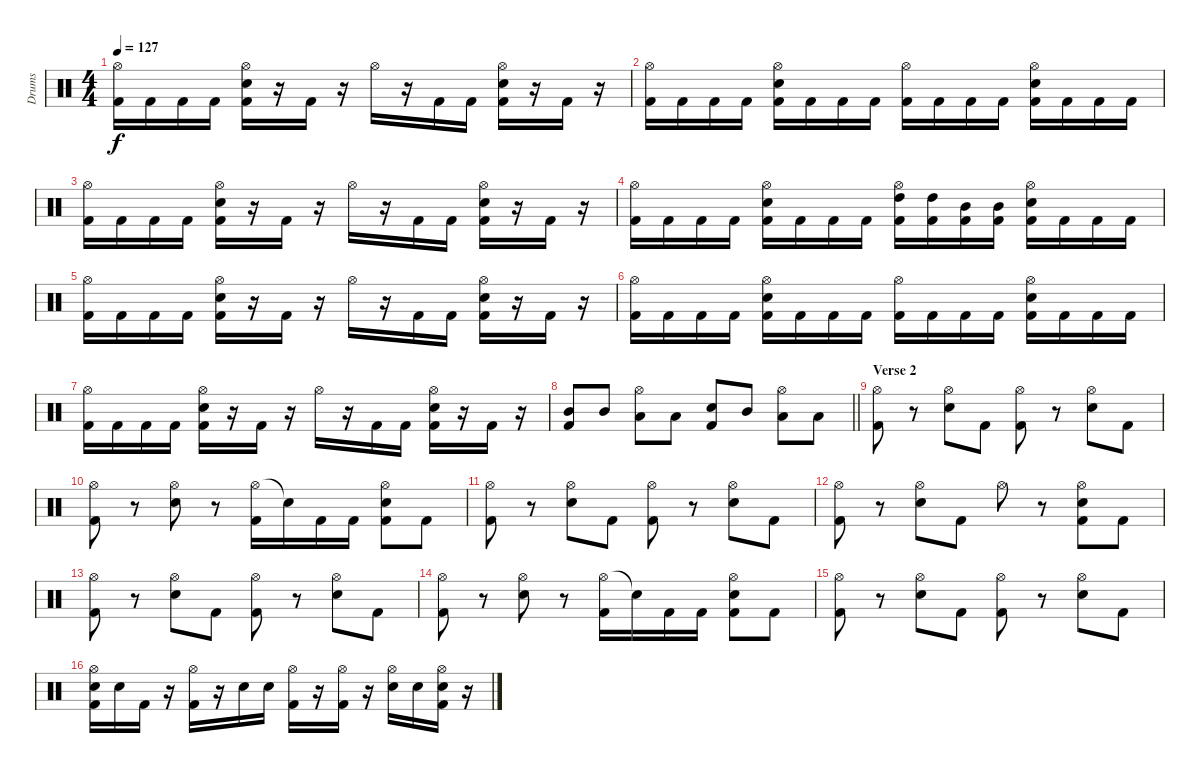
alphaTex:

\track ("Drums" "Drums") {instrument percussion}
\staff {score}
\articulation defaults
\ts (4 4)
\tempo 127
\clef neutral
\ks c
("Hi-Hat (open)" "Kick (hit) 2").16{dy f} "Kick (hit) 2".16 "Kick (hit) 2".16 "Kick (hit) 2".16 ("Hi-Hat (open)" "Electric Snare (hit)" "Kick (hit) 2").16 r.16 "Kick (hit) 2".16 r.16 "Hi-Hat (open)".16 r.16 "Kick (hit) 2".16 "Kick (hit) 2".16 ("Hi-Hat (open)" "Electric Snare (hit)" "Kick (hit) 2").16 r.16 "Kick (hit) 2".16 r.16 |
("Hi-Hat (open)" "Kick (hit) 2").16 "Kick (hit) 2".16 "Kick (hit) 2".16 "Kick (hit) 2".16 ("Hi-Hat (open)" "Electric Snare (hit)" "Kick (hit) 2").16 "Kick (hit) 2".16 "Kick (hit) 2".16 "Kick (hit) 2".16 ("Hi-Hat (open)" "Kick (hit) 2").16 "Kick (hit) 2".16 "Kick (hit) 2".16 "Kick (hit) 2".16 ("Hi-Hat (open)" "Electric Snare (hit)" "Kick (hit) 2").16 "Kick (hit) 2".16 "Kick (hit) 2".16 "Kick (hit) 2".16 |
("Hi-Hat (open)" "Kick (hit) 2").16 "Kick (hit) 2".16 "Kick (hit) 2".16 "Kick (hit) 2".16 ("Hi-Hat (open)" "Electric Snare (hit)" "Kick (hit) 2").16 r.16 "Kick (hit) 2".16 r.16 "Hi-Hat (open)".16 r.16 "Kick (hit) 2".16 "Kick (hit) 2".16 ("Hi-Hat (open)" "Electric Snare (hit)" "Kick (hit) 2").16 r.16 "Kick (hit) 2".16 r.16 |
("Hi-Hat (open)" "Kick (hit) 2").16 "Kick (hit) 2".16 "Kick (hit) 2".16 "Kick (hit) 2".16 ("Hi-Hat (open)" "Electric Snare (hit)" "Kick (hit) 2").16 "Kick (hit) 2".16 "Kick (hit) 2".16 "Kick (hit) 2".16 ("Hi-Hat (open)" "High Tom (hit)" "Kick (hit) 2").16 ("High Tom (hit)" "Kick (hit) 2").16 ("Mid Tom (hit)" "Kick (hit) 2").16 ("Mid Tom (hit)" "Kick (hit) 2").16 ("Hi-Hat (open)" "Electric Snare (hit)" "Kick (hit) 2").16 "Kick (hit) 2".16 "Kick (hit) 2".16 "Kick (hit) 2".16 |
("Hi-Hat (open)" "Kick (hit) 2").16 "Kick (hit) 2".16 "Kick (hit) 2".16 "Kick (hit) 2".16 ("Hi-Hat (open)" "Electric Snare (hit)" "Kick (hit) 2").16 r.16 "Kick (hit) 2".16 r.16 "Hi-Hat (open)".16 r.16 "Kick (hit) 2".16 "Kick (hit) 2".16 ("Hi-Hat (open)" "Electric Snare (hit)" "Kick (hit) 2").16 r.16 "Kick (hit) 2".16 r.16 |
("Hi-Hat (open)" "Kick (hit) 2").16 "Kick (hit) 2".16 "Kick (hit) 2".16 "Kick (hit) 2".16 ("Hi-Hat (open)" "Electric Snare (hit)" "Kick (hit) 2").16 "Kick (hit) 2".16 "Kick (hit) 2".16 "Kick (hit) 2".16 ("Hi-Hat (open)" "Kick (hit) 2").16 "Kick (hit) 2".16 "Kick (hit) 2".16 "Kick (hit) 2".16 ("Hi-Hat (open)" "Electric Snare (hit)" "Kick (hit) 2").16 "Kick (hit) 2".16 "Kick (hit) 2".16 "Kick (hit) 2".16 |
("Hi-Hat (open)" "Kick (hit) 2").16 "Kick (hit) 2".16 "Kick (hit) 2".16 "Kick (hit) 2".16 ("Hi-Hat (open)" "Electric Snare (hit)" "Kick (hit) 2").16 r.16 "Kick (hit) 2".16 r.16 "Hi-Hat (open)".16 r.16 "Kick (hit) 2".16 "Kick (hit) 2".16 ("Hi-Hat (open)" "Electric Snare (hit)" "Kick (hit) 2").16 r.16 "Kick (hit) 2".16 r.16 |
\barLineRight lightlight
("Mid Tom (hit)" "Kick (hit) 2").8 "Mid Tom (hit)".8 ("Hi-Hat (open)" "Low Tom (hit)").8 "Low Tom (hit)".8 ("Electric Snare (hit)" "Kick (hit) 2").8 "Mid Tom (hit)".8 ("Hi-Hat (open)" "Low Tom (hit)").8 "Low Tom (hit)".8 |
\section ("" "Verse 2")
("Hi-Hat (open)" "Kick (hit) 2").8 r.8 ("Hi-Hat (open)" "Electric Snare (hit)").8 "Kick (hit) 2".8 ("Hi-Hat (open)" "Kick (hit) 2").8 r.8 ("Hi-Hat (open)" "Electric Snare (hit)").8 "Kick (hit) 2".8 |
("Hi-Hat (open)" "Kick (hit) 2").8 r.8 ("Hi-Hat (open)" "Electric Snare (hit)").8 r.8 ("Hi-Hat (open)" "Kick (hit) 2").16 "Snare (hit)"{t}.16 "Kick (hit) 2".16 "Kick (hit) 2".16 ("Hi-Hat (open)" "Electric Snare (hit)" "Kick (hit) 2").8 "Kick (hit) 2".8 |
("Hi-Hat (open)" "Kick (hit) 2").8 r.8 ("Hi-Hat (open)" "Electric Snare (hit)").8 "Kick (hit) 2".8 ("Hi-Hat (open)" "Kick (hit) 2").8 r.8 ("Hi-Hat (open)" "Electric Snare (hit)").8 "Kick (hit) 2".8 |
("Hi-Hat (open)" "Kick (hit) 2").8 r.8 ("Hi-Hat (open)" "Electric Snare (hit)").8 "Kick (hit) 2".8 "Hi-Hat (open)".8 r.8 ("Hi-Hat (open)" "Electric Snare (hit)" "Kick (hit) 2").8 "Kick (hit) 2".8 |
("Hi-Hat (open)" "Kick (hit) 2").8 r.8 ("Hi-Hat (open)" "Electric Snare (hit)").8 "Kick (hit) 2".8 ("Hi-Hat (open)" "Kick (hit) 2").8 r.8 ("Hi-Hat (open)" "Electric Snare (hit)").8 "Kick (hit) 2".8 |
("Hi-Hat (open)" "Kick (hit) 2").8 r.8 ("Hi-Hat (open)" "Electric Snare (hit)").8 r.8 ("Hi-Hat (open)" "Kick (hit) 2").16 "Snare (hit)"{t}.16 "Kick (hit) 2".16 "Kick (hit) 2".16 ("Hi-Hat (open)" "Electric Snare (hit)" "Kick (hit) 2").8 "Kick (hit) 2".8 |
("Hi-Hat (open)" "Kick (hit) 2").8 r.8 ("Hi-Hat (open)" "Electric Snare (hit)").8 "Kick (hit) 2".8 ("Hi-Hat (open)" "Kick (hit) 2").8 r.8 ("Hi-Hat (open)" "Electric Snare (hit)").8 "Kick (hit) 2".8 |
("Hi-Hat (open)" "Electric Snare (hit)" "Kick (hit) 2").16 "Electric Snare (hit)".16 "Kick (hit) 2".16 r.16 ("Hi-Hat (open)" "Kick (hit) 2").16 r.16 "Electric Snare (hit)".16 "Electric Snare (hit)".16 ("Hi-Hat (open)" "Kick (hit) 2").16 r.16 ("Hi-Hat (open)" "Kick (hit) 2").16 r.16 ("Hi-Hat (open)" "Electric Snare (hit)").16 "Electric Snare (hit)".16 ("Hi-Hat (open)" "Electric Snare (hit)" "Kick (hit) 2").16 r.16
